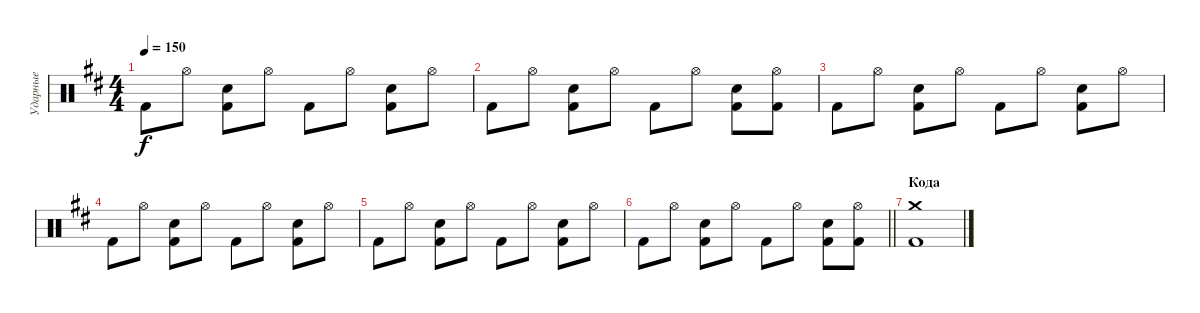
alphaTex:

\track ("Ударные" "Ударные") {instrument percussion}
\staff {score}
\articulation defaults
\ts (4 4)
\tempo 150
\clef neutral
\ks bminor "Kick (hit) 2".8{dy f} "Hi-Hat (open)".8
("Electric Snare (hit)" "Kick (hit) 2").8 "Hi-Hat (open)".8 "Kick (hit) 2".8 "Hi-Hat (open)".8 ("Electric Snare (hit)" "Kick (hit) 2").8 "Hi-Hat (open)".8 |
"Kick (hit) 2".8 "Hi-Hat (open)".8 ("Electric Snare (hit)" "Kick (hit) 2").8 "Hi-Hat (open)".8 "Kick (hit) 2".8 "Hi-Hat (open)".8 ("Electric Snare (hit)" "Kick (hit) 2").8 ("Kick (hit) 2" "Hi-Hat (open)").8 |
"Kick (hit) 2".8 "Hi-Hat (open)".8 ("Electric Snare (hit)" "Kick (hit) 2").8 "Hi-Hat (open)".8 "Kick (hit) 2".8 "Hi-Hat (open)".8 ("Electric Snare (hit)" "Kick (hit) 2").8 "Hi-Hat (open)".8 |
"Kick (hit) 2".8 "Hi-Hat (open)".8 ("Electric Snare (hit)" "Kick (hit) 2").8 "Hi-Hat (open)".8 "Kick (hit) 2".8 "Hi-Hat (open)".8 ("Electric Snare (hit)" "Kick (hit) 2").8 "Hi-Hat (open)".8 |
"Kick (hit) 2".8 "Hi-Hat (open)".8 ("Electric Snare (hit)" "Kick (hit) 2").8 "Hi-Hat (open)".8 "Kick (hit) 2".8 "Hi-Hat (open)".8 ("Electric Snare (hit)" "Kick (hit) 2").8 "Hi-Hat (open)".8 |
\barLineRight lightlight "Kick (hit) 2".8 "Hi-Hat (open)".8
("Electric Snare (hit)" "Kick (hit) 2").8 "Hi-Hat (open)".8 "Kick (hit) 2".8 "Hi-Hat (open)".8 ("Electric Snare (hit)" "Kick (hit) 2").8 ("Kick (hit) 2" "Hi-Hat (open)").8 |
\section ("" "Кода")
("Crash medium (hit)" "Kick (hit) 2").1
